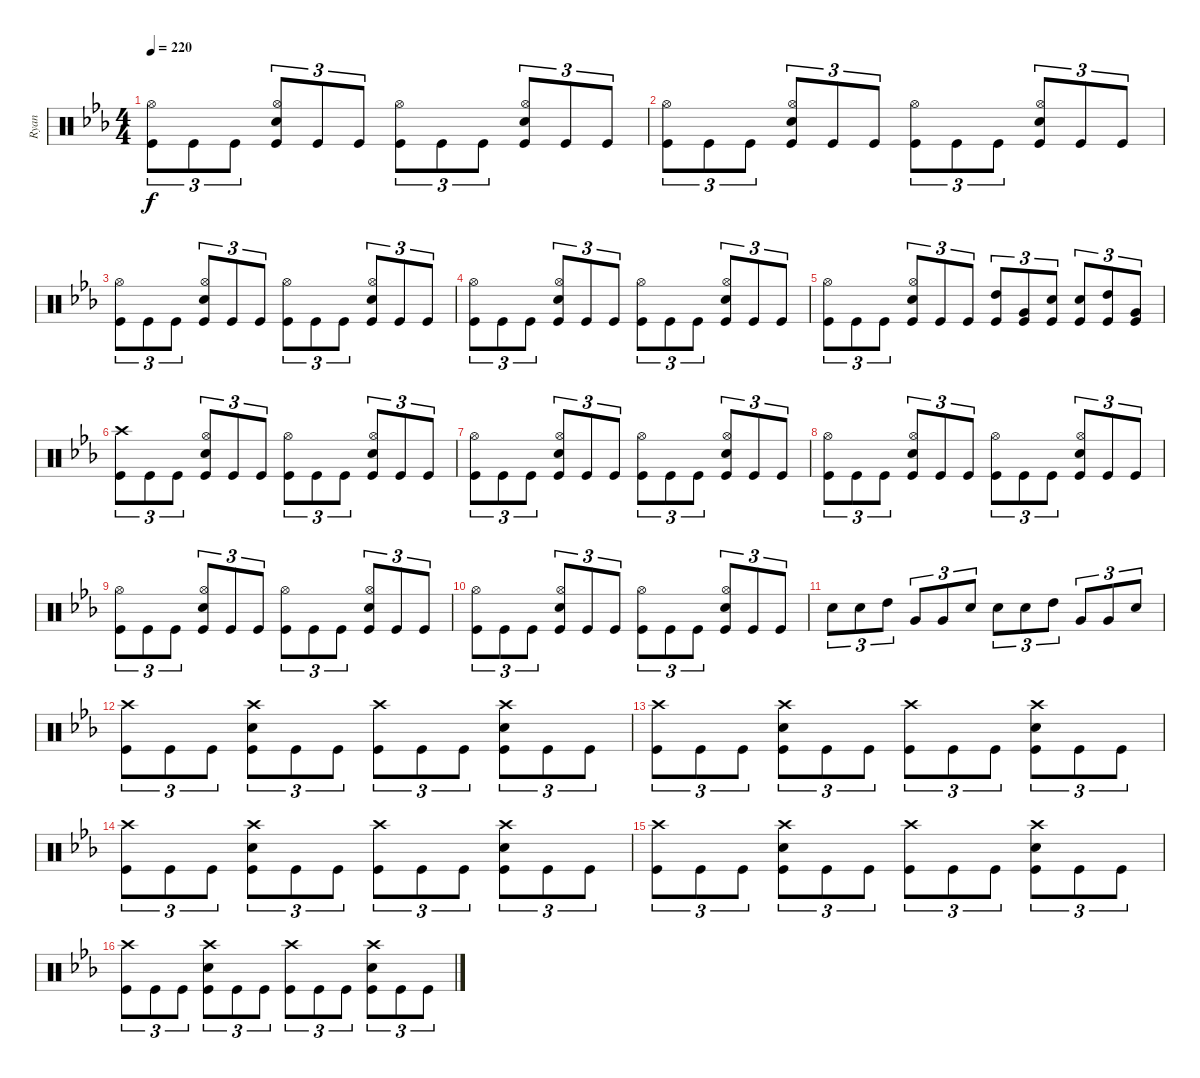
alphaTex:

\track ("Ryan" "Ryan") {instrument percussion}
\staff {score}
\articulation defaults
\ts (4 4)
\tempo 220
\clef neutral
\ks cminor
("Kick (hit)" "Hi-Hat (open)").8{tu (3 2) dy f} "Kick (hit)".8{tu (3 2)} "Kick (hit)".8{tu (3 2)} ("Kick (hit)" "Snare (hit) 2" "Hi-Hat (open)").8{tu (3 2)} "Kick (hit)".8{tu (3 2)} "Kick (hit)".8{tu (3 2)} ("Kick (hit)" "Hi-Hat (open)").8{tu (3 2)} "Kick (hit)".8{tu (3 2)} "Kick (hit)".8{tu (3 2)} ("Kick (hit)" "Snare (hit) 2" "Hi-Hat (open)").8{tu (3 2)} "Kick (hit)".8{tu (3 2)} "Kick (hit)".8{tu (3 2)} |
("Kick (hit)" "Hi-Hat (open)").8{tu (3 2)} "Kick (hit)".8{tu (3 2)} "Kick (hit)".8{tu (3 2)} ("Kick (hit)" "Snare (hit) 2" "Hi-Hat (open)").8{tu (3 2)} "Kick (hit)".8{tu (3 2)} "Kick (hit)".8{tu (3 2)} ("Kick (hit)" "Hi-Hat (open)").8{tu (3 2)} "Kick (hit)".8{tu (3 2)} "Kick (hit)".8{tu (3 2)} ("Kick (hit)" "Snare (hit) 2" "Hi-Hat (open)").8{tu (3 2)} "Kick (hit)".8{tu (3 2)} "Kick (hit)".8{tu (3 2)} |
("Kick (hit)" "Hi-Hat (open)").8{tu (3 2)} "Kick (hit)".8{tu (3 2)} "Kick (hit)".8{tu (3 2)} ("Kick (hit)" "Snare (hit) 2" "Hi-Hat (open)").8{tu (3 2)} "Kick (hit)".8{tu (3 2)} "Kick (hit)".8{tu (3 2)} ("Kick (hit)" "Hi-Hat (open)").8{tu (3 2)} "Kick (hit)".8{tu (3 2)} "Kick (hit)".8{tu (3 2)} ("Kick (hit)" "Snare (hit) 2" "Hi-Hat (open)").8{tu (3 2)} "Kick (hit)".8{tu (3 2)} "Kick (hit)".8{tu (3 2)} |
("Kick (hit)" "Hi-Hat (open)").8{tu (3 2)} "Kick (hit)".8{tu (3 2)} "Kick (hit)".8{tu (3 2)} ("Kick (hit)" "Snare (hit) 2" "Hi-Hat (open)").8{tu (3 2)} "Kick (hit)".8{tu (3 2)} "Kick (hit)".8{tu (3 2)} ("Kick (hit)" "Hi-Hat (open)").8{tu (3 2)} "Kick (hit)".8{tu (3 2)} "Kick (hit)".8{tu (3 2)} ("Kick (hit)" "Snare (hit) 2" "Hi-Hat (open)").8{tu (3 2)} "Kick (hit)".8{tu (3 2)} "Kick (hit)".8{tu (3 2)} |
("Kick (hit)" "Hi-Hat (open)").8{tu (3 2)} "Kick (hit)".8{tu (3 2)} "Kick (hit)".8{tu (3 2)} ("Kick (hit)" "Snare (hit) 2" "Hi-Hat (open)").8{tu (3 2)} "Kick (hit)".8{tu (3 2)} "Kick (hit)".8{tu (3 2)} ("High Tom (hit)" "Kick (hit)").8{tu (3 2)} ("Very Low Tom (hit)" "Kick (hit)").8{tu (3 2)} ("Snare (hit) 2" "Kick (hit)").8{tu (3 2)} ("Snare (hit) 2" "Kick (hit)").8{tu (3 2)} ("High Tom (hit)" "Kick (hit)").8{tu (3 2)} ("Very Low Tom (hit)" "Kick (hit)").8{tu (3 2)} |
("Kick (hit)" "Crash high (hit)").8{tu (3 2)} "Kick (hit)".8{tu (3 2)} "Kick (hit)".8{tu (3 2)} ("Kick (hit)" "Snare (hit) 2" "Hi-Hat (open)").8{tu (3 2)} "Kick (hit)".8{tu (3 2)} "Kick (hit)".8{tu (3 2)} ("Kick (hit)" "Hi-Hat (open)").8{tu (3 2)} "Kick (hit)".8{tu (3 2)} "Kick (hit)".8{tu (3 2)} ("Kick (hit)" "Snare (hit) 2" "Hi-Hat (open)").8{tu (3 2)} "Kick (hit)".8{tu (3 2)} "Kick (hit)".8{tu (3 2)} |
("Kick (hit)" "Hi-Hat (open)").8{tu (3 2)} "Kick (hit)".8{tu (3 2)} "Kick (hit)".8{tu (3 2)} ("Kick (hit)" "Snare (hit) 2" "Hi-Hat (open)").8{tu (3 2)} "Kick (hit)".8{tu (3 2)} "Kick (hit)".8{tu (3 2)} ("Kick (hit)" "Hi-Hat (open)").8{tu (3 2)} "Kick (hit)".8{tu (3 2)} "Kick (hit)".8{tu (3 2)} ("Kick (hit)" "Snare (hit) 2" "Hi-Hat (open)").8{tu (3 2)} "Kick (hit)".8{tu (3 2)} "Kick (hit)".8{tu (3 2)} |
("Kick (hit)" "Hi-Hat (open)").8{tu (3 2)} "Kick (hit)".8{tu (3 2)} "Kick (hit)".8{tu (3 2)} ("Kick (hit)" "Snare (hit) 2" "Hi-Hat (open)").8{tu (3 2)} "Kick (hit)".8{tu (3 2)} "Kick (hit)".8{tu (3 2)} ("Kick (hit)" "Hi-Hat (open)").8{tu (3 2)} "Kick (hit)".8{tu (3 2)} "Kick (hit)".8{tu (3 2)} ("Kick (hit)" "Snare (hit) 2" "Hi-Hat (open)").8{tu (3 2)} "Kick (hit)".8{tu (3 2)} "Kick (hit)".8{tu (3 2)} |
("Kick (hit)" "Hi-Hat (open)").8{tu (3 2)} "Kick (hit)".8{tu (3 2)} "Kick (hit)".8{tu (3 2)} ("Kick (hit)" "Snare (hit) 2" "Hi-Hat (open)").8{tu (3 2)} "Kick (hit)".8{tu (3 2)} "Kick (hit)".8{tu (3 2)} ("Kick (hit)" "Hi-Hat (open)").8{tu (3 2)} "Kick (hit)".8{tu (3 2)} "Kick (hit)".8{tu (3 2)} ("Kick (hit)" "Snare (hit) 2" "Hi-Hat (open)").8{tu (3 2)} "Kick (hit)".8{tu (3 2)} "Kick (hit)".8{tu (3 2)} |
("Kick (hit)" "Hi-Hat (open)").8{tu (3 2)} "Kick (hit)".8{tu (3 2)} "Kick (hit)".8{tu (3 2)} ("Kick (hit)" "Snare (hit) 2" "Hi-Hat (open)").8{tu (3 2)} "Kick (hit)".8{tu (3 2)} "Kick (hit)".8{tu (3 2)} ("Kick (hit)" "Hi-Hat (open)").8{tu (3 2)} "Kick (hit)".8{tu (3 2)} "Kick (hit)".8{tu (3 2)} ("Kick (hit)" "Snare (hit) 2" "Hi-Hat (open)").8{tu (3 2)} "Kick (hit)".8{tu (3 2)} "Kick (hit)".8{tu (3 2)} |
"Snare (hit) 2".8{tu (3 2)} "Snare (hit) 2".8{tu (3 2)} "High Tom (hit)".8{tu (3 2)} "Very Low Tom (hit)".8{tu (3 2)} "Very Low Tom (hit)".8{tu (3 2)} "Snare (hit) 2".8{tu (3 2)} "Snare (hit) 2".8{tu (3 2)} "Snare (hit) 2".8{tu (3 2)} "High Tom (hit)".8{tu (3 2)} "Very Low Tom (hit)".8{tu (3 2)} "Very Low Tom (hit)".8{tu (3 2)} "Snare (hit) 2".8{tu (3 2)} |
("Kick (hit)" "Crash high (hit)").8{tu (3 2)} "Kick (hit)".8{tu (3 2)} "Kick (hit)".8{tu (3 2)} ("Kick (hit)" "Crash high (hit)" "Snare (hit) 2").8{tu (3 2)} "Kick (hit)".8{tu (3 2)} "Kick (hit)".8{tu (3 2)} ("Kick (hit)" "Crash high (hit)").8{tu (3 2)} "Kick (hit)".8{tu (3 2)} "Kick (hit)".8{tu (3 2)} ("Kick (hit)" "Crash high (hit)" "Snare (hit) 2").8{tu (3 2)} "Kick (hit)".8{tu (3 2)} "Kick (hit)".8{tu (3 2)} |
("Kick (hit)" "Crash high (hit)").8{tu (3 2)} "Kick (hit)".8{tu (3 2)} "Kick (hit)".8{tu (3 2)} ("Kick (hit)" "Crash high (hit)" "Snare (hit) 2").8{tu (3 2)} "Kick (hit)".8{tu (3 2)} "Kick (hit)".8{tu (3 2)} ("Kick (hit)" "Crash high (hit)").8{tu (3 2)} "Kick (hit)".8{tu (3 2)} "Kick (hit)".8{tu (3 2)} ("Kick (hit)" "Crash high (hit)" "Snare (hit) 2").8{tu (3 2)} "Kick (hit)".8{tu (3 2)} "Kick (hit)".8{tu (3 2)} |
("Kick (hit)" "Crash high (hit)").8{tu (3 2)} "Kick (hit)".8{tu (3 2)} "Kick (hit)".8{tu (3 2)} ("Kick (hit)" "Crash high (hit)" "Snare (hit) 2").8{tu (3 2)} "Kick (hit)".8{tu (3 2)} "Kick (hit)".8{tu (3 2)} ("Kick (hit)" "Crash high (hit)").8{tu (3 2)} "Kick (hit)".8{tu (3 2)} "Kick (hit)".8{tu (3 2)} ("Kick (hit)" "Crash high (hit)" "Snare (hit) 2").8{tu (3 2)} "Kick (hit)".8{tu (3 2)} "Kick (hit)".8{tu (3 2)} |
("Kick (hit)" "Crash high (hit)").8{tu (3 2)} "Kick (hit)".8{tu (3 2)} "Kick (hit)".8{tu (3 2)} ("Kick (hit)" "Crash high (hit)" "Snare (hit) 2").8{tu (3 2)} "Kick (hit)".8{tu (3 2)} "Kick (hit)".8{tu (3 2)} ("Kick (hit)" "Crash high (hit)").8{tu (3 2)} "Kick (hit)".8{tu (3 2)} "Kick (hit)".8{tu (3 2)} ("Kick (hit)" "Crash high (hit)" "Snare (hit) 2").8{tu (3 2)} "Kick (hit)".8{tu (3 2)} "Kick (hit)".8{tu (3 2)} |
("Kick (hit)" "Crash high (hit)").8{tu (3 2)} "Kick (hit)".8{tu (3 2)} "Kick (hit)".8{tu (3 2)} ("Kick (hit)" "Crash high (hit)" "Snare (hit) 2").8{tu (3 2)} "Kick (hit)".8{tu (3 2)} "Kick (hit)".8{tu (3 2)} ("Kick (hit)" "Crash high (hit)").8{tu (3 2)} "Kick (hit)".8{tu (3 2)} "Kick (hit)".8{tu (3 2)} ("Kick (hit)" "Crash high (hit)" "Snare (hit) 2").8{tu (3 2)} "Kick (hit)".8{tu (3 2)} "Kick (hit)".8{tu (3 2)}
